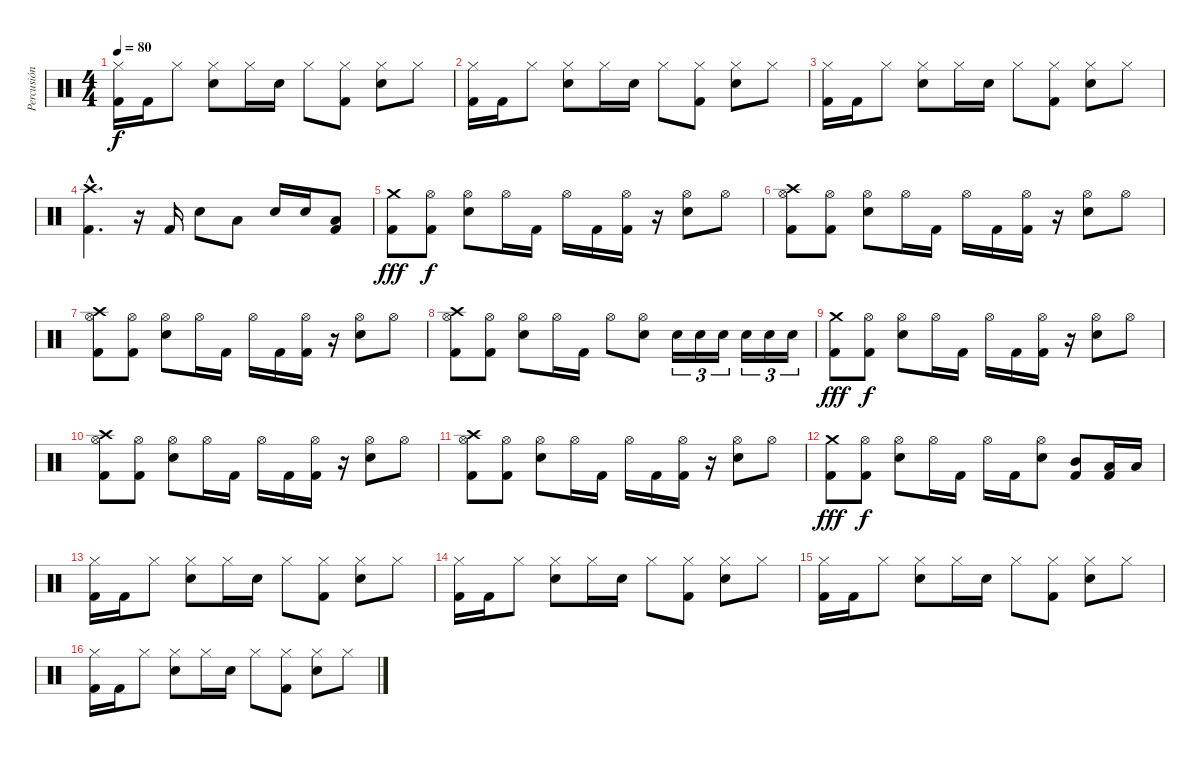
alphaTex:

\track ("Percusión" "Percusión") {instrument percussion}
\staff {score}
\articulation defaults
\ts (4 4)
\tempo 80
\clef neutral
\ks c
("Hi-Hat (closed)" "Kick (hit) 2").16{dy f} "Kick (hit) 2".16 "Hi-Hat (closed)".8 ("Hi-Hat (closed)" "Electric Snare (hit)").8 "Hi-Hat (closed)".16 "Electric Snare (hit)".16 "Hi-Hat (closed)".8 ("Hi-Hat (closed)" "Kick (hit) 2").8 ("Hi-Hat (closed)" "Electric Snare (hit)").8 "Hi-Hat (closed)".8 |
("Hi-Hat (closed)" "Kick (hit) 2").16 "Kick (hit) 2".16 "Hi-Hat (closed)".8 ("Hi-Hat (closed)" "Electric Snare (hit)").8 "Hi-Hat (closed)".16 "Electric Snare (hit)".16 "Hi-Hat (closed)".8 ("Hi-Hat (closed)" "Kick (hit) 2").8 ("Hi-Hat (closed)" "Electric Snare (hit)").8 "Hi-Hat (closed)".8 |
("Hi-Hat (closed)" "Kick (hit) 2").16 "Kick (hit) 2".16 "Hi-Hat (closed)".8 ("Hi-Hat (closed)" "Electric Snare (hit)").8 "Hi-Hat (closed)".16 "Electric Snare (hit)".16 "Hi-Hat (closed)".8 ("Hi-Hat (closed)" "Kick (hit) 2").8 ("Hi-Hat (closed)" "Electric Snare (hit)").8 "Hi-Hat (closed)".8 |
("Crash high (hit)"{hac} "Kick (hit) 2"{hac}).4{d} r.16 "Kick (hit) 2".16 "Electric Snare (hit)".8 "Low Tom (hit)".8 "Electric Snare (hit)".16 "Electric Snare (hit)".16 ("Low Tom (hit)" "Kick (hit) 2").8 |
("Crash medium (hit)" "Kick (hit) 2").8{dy fff} ("Hi-Hat (open)" "Kick (hit) 2").8{dy f} ("Hi-Hat (open)" "Electric Snare (hit)").8 "Hi-Hat (open)".16 "Kick (hit) 2".16 "Hi-Hat (open)".16 "Kick (hit) 2".16 ("Hi-Hat (open)" "Kick (hit) 2").16 r.16 ("Hi-Hat (open)" "Electric Snare (hit)").8 "Hi-Hat (open)".8 |
("Crash high (hit)" "Hi-Hat (open)" "Kick (hit) 2").8 ("Hi-Hat (open)" "Kick (hit) 2").8 ("Hi-Hat (open)" "Electric Snare (hit)").8 "Hi-Hat (open)".16 "Kick (hit) 2".16 "Hi-Hat (open)".16 "Kick (hit) 2".16 ("Hi-Hat (open)" "Kick (hit) 2").16 r.16 ("Hi-Hat (open)" "Electric Snare (hit)").8 "Hi-Hat (open)".8 |
("Crash high (hit)" "Hi-Hat (open)" "Kick (hit) 2").8 ("Hi-Hat (open)" "Kick (hit) 2").8 ("Hi-Hat (open)" "Electric Snare (hit)").8 "Hi-Hat (open)".16 "Kick (hit) 2".16 "Hi-Hat (open)".16 "Kick (hit) 2".16 ("Hi-Hat (open)" "Kick (hit) 2").16 r.16 ("Hi-Hat (open)" "Electric Snare (hit)").8 "Hi-Hat (open)".8 |
("Crash high (hit)" "Hi-Hat (open)" "Kick (hit) 2").8 ("Hi-Hat (open)" "Kick (hit) 2").8 ("Hi-Hat (open)" "Electric Snare (hit)").8 "Hi-Hat (open)".16 "Kick (hit) 2".16 "Hi-Hat (open)".8 ("Hi-Hat (open)" "Electric Snare (hit)").8 "Electric Snare (hit)".16{tu (3 2)} "Electric Snare (hit)".16{tu (3 2)} "Electric Snare (hit)".16{tu (3 2)} "Electric Snare (hit)".16{tu (3 2)} "Electric Snare (hit)".16{tu (3 2)} "Electric Snare (hit)".16{tu (3 2)} |
("Crash medium (hit)" "Kick (hit) 2").8{dy fff} ("Hi-Hat (open)" "Kick (hit) 2").8{dy f} ("Hi-Hat (open)" "Electric Snare (hit)").8 "Hi-Hat (open)".16 "Kick (hit) 2".16 "Hi-Hat (open)".16 "Kick (hit) 2".16 ("Hi-Hat (open)" "Kick (hit) 2").16 r.16 ("Hi-Hat (open)" "Electric Snare (hit)").8 "Hi-Hat (open)".8 |
("Crash high (hit)" "Hi-Hat (open)" "Kick (hit) 2").8 ("Hi-Hat (open)" "Kick (hit) 2").8 ("Hi-Hat (open)" "Electric Snare (hit)").8 "Hi-Hat (open)".16 "Kick (hit) 2".16 "Hi-Hat (open)".16 "Kick (hit) 2".16 ("Hi-Hat (open)" "Kick (hit) 2").16 r.16 ("Hi-Hat (open)" "Electric Snare (hit)").8 "Hi-Hat (open)".8 |
("Crash high (hit)" "Hi-Hat (open)" "Kick (hit) 2").8 ("Hi-Hat (open)" "Kick (hit) 2").8 ("Hi-Hat (open)" "Electric Snare (hit)").8 "Hi-Hat (open)".16 "Kick (hit) 2".16 "Hi-Hat (open)".16 "Kick (hit) 2".16 ("Hi-Hat (open)" "Kick (hit) 2").16 r.16 ("Hi-Hat (open)" "Electric Snare (hit)").8 "Hi-Hat (open)".8 |
("Crash medium (hit)" "Kick (hit) 2").8{dy fff} ("Hi-Hat (open)" "Kick (hit) 2").8{dy f} ("Hi-Hat (open)" "Electric Snare (hit)").8 "Hi-Hat (open)".16 "Kick (hit) 2".16 "Hi-Hat (open)".16 "Kick (hit) 2".16 ("Hi-Hat (open)" "Electric Snare (hit)").8 ("Mid Tom (hit)" "Kick (hit) 2").8 ("Low Tom (hit)" "Kick (hit) 2").16 "Low Tom (hit)".16 |
("Hi-Hat (closed)" "Kick (hit) 2").16 "Kick (hit) 2".16 "Hi-Hat (closed)".8 ("Hi-Hat (closed)" "Electric Snare (hit)").8 "Hi-Hat (closed)".16 "Electric Snare (hit)".16 "Hi-Hat (closed)".8 ("Hi-Hat (closed)" "Kick (hit) 2").8 ("Hi-Hat (closed)" "Electric Snare (hit)").8 "Hi-Hat (closed)".8 |
("Hi-Hat (closed)" "Kick (hit) 2").16 "Kick (hit) 2".16 "Hi-Hat (closed)".8 ("Hi-Hat (closed)" "Electric Snare (hit)").8 "Hi-Hat (closed)".16 "Electric Snare (hit)".16 "Hi-Hat (closed)".8 ("Hi-Hat (closed)" "Kick (hit) 2").8 ("Hi-Hat (closed)" "Electric Snare (hit)").8 "Hi-Hat (closed)".8 |
("Hi-Hat (closed)" "Kick (hit) 2").16 "Kick (hit) 2".16 "Hi-Hat (closed)".8 ("Hi-Hat (closed)" "Electric Snare (hit)").8 "Hi-Hat (closed)".16 "Electric Snare (hit)".16 "Hi-Hat (closed)".8 ("Hi-Hat (closed)" "Kick (hit) 2").8 ("Hi-Hat (closed)" "Electric Snare (hit)").8 "Hi-Hat (closed)".8 |
("Hi-Hat (closed)" "Kick (hit) 2").16 "Kick (hit) 2".16 "Hi-Hat (closed)".8 ("Hi-Hat (closed)" "Electric Snare (hit)").8 "Hi-Hat (closed)".16 "Electric Snare (hit)".16 "Hi-Hat (closed)".8 ("Hi-Hat (closed)" "Kick (hit) 2").8 ("Hi-Hat (closed)" "Electric Snare (hit)").8 "Hi-Hat (closed)".8
